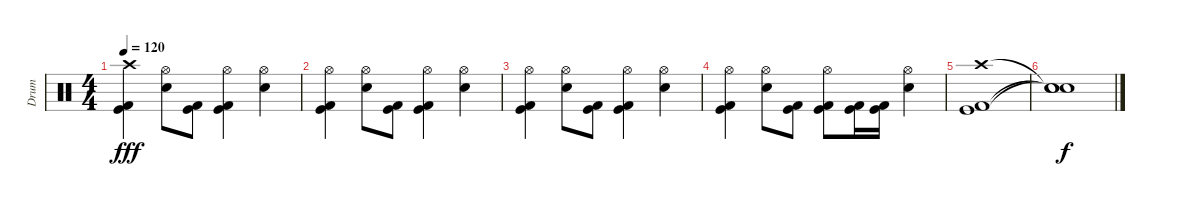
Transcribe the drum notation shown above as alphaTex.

\track ("Drum" "Drum") {instrument percussion}
\staff {score}
\articulation defaults
\ts (4 4)
\tempo 120
\clef neutral
\ks c
("Kick (hit)" "Kick (hit) 2" "Crash high (hit)").4{dy fff} ("Snare (hit) 2" "Hi-Hat (open)").8 ("Kick (hit)" "Kick (hit) 2").8 ("Kick (hit)" "Kick (hit) 2" "Hi-Hat (open)").4 ("Snare (hit) 2" "Hi-Hat (open)").4 |
("Kick (hit)" "Kick (hit) 2" "Hi-Hat (open)").4 ("Snare (hit) 2" "Hi-Hat (open)").8 ("Kick (hit)" "Kick (hit) 2").8 ("Kick (hit)" "Kick (hit) 2" "Hi-Hat (open)").4 ("Snare (hit) 2" "Hi-Hat (open)").4 |
("Kick (hit)" "Kick (hit) 2" "Hi-Hat (open)").4 ("Snare (hit) 2" "Hi-Hat (open)").8 ("Kick (hit)" "Kick (hit) 2").8 ("Kick (hit)" "Kick (hit) 2" "Hi-Hat (open)").4 ("Snare (hit) 2" "Hi-Hat (open)").4 |
("Kick (hit)" "Kick (hit) 2" "Hi-Hat (open)").4 ("Snare (hit) 2" "Hi-Hat (open)").8 ("Kick (hit)" "Kick (hit) 2").8 ("Kick (hit)" "Kick (hit) 2" "Hi-Hat (open)").8 ("Kick (hit)" "Kick (hit) 2").16 ("Kick (hit)" "Kick (hit) 2").16 ("Snare (hit) 2" "Hi-Hat (open)").4 |
("Kick (hit)" "Kick (hit) 2" "Crash high (hit)").1 |
("Snare (hit)"{t} "Snare (hit)"{t} "Snare (hit)"{t}).1{dy f}
